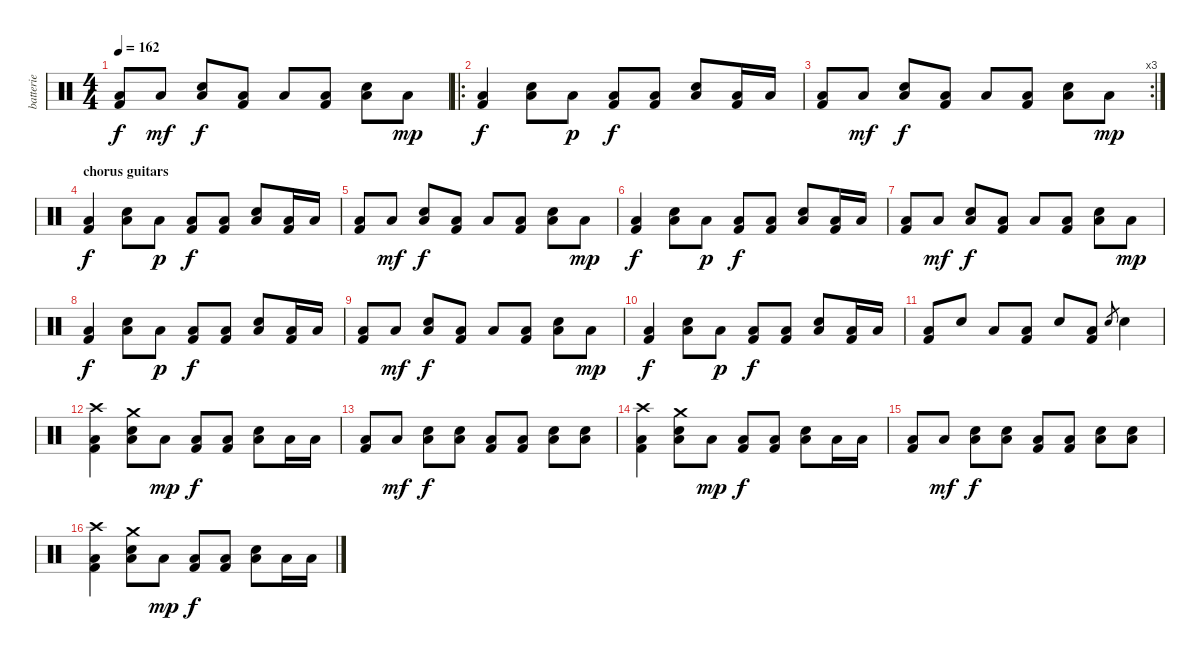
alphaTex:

\track ("batterie" "batterie") {instrument percussion}
\staff {score}
\articulation defaults
\ts (4 4)
\tempo 162
\clef neutral
\ks c
("Low Floor Tom (hit)" "Kick (hit) 2").8{dy f} "Low Floor Tom (hit)".8{dy mf} ("Low Floor Tom (hit)" "Electric Snare (hit)").8{dy f} ("Low Floor Tom (hit)" "Kick (hit) 2").8 "Low Floor Tom (hit)".8 ("Low Floor Tom (hit)" "Kick (hit) 2").8 ("Low Floor Tom (hit)" "Electric Snare (hit)").8 "Low Floor Tom (hit)".8{dy mp} |
\ro
("Low Floor Tom (hit)" "Kick (hit) 2").4{dy f} ("Low Floor Tom (hit)" "Electric Snare (hit)").8 "Low Floor Tom (hit)".8{dy p} ("Low Floor Tom (hit)" "Kick (hit) 2").8{dy f} ("Low Floor Tom (hit)" "Kick (hit) 2").8 ("Low Floor Tom (hit)" "Electric Snare (hit)").8 ("Low Floor Tom (hit)" "Kick (hit) 2").16 "Low Floor Tom (hit)".16 |
\rc 3
("Low Floor Tom (hit)" "Kick (hit) 2").8 "Low Floor Tom (hit)".8{dy mf} ("Low Floor Tom (hit)" "Electric Snare (hit)").8{dy f} ("Low Floor Tom (hit)" "Kick (hit) 2").8 "Low Floor Tom (hit)".8 ("Low Floor Tom (hit)" "Kick (hit) 2").8 ("Low Floor Tom (hit)" "Electric Snare (hit)").8 "Low Floor Tom (hit)".8{dy mp} |
\section ("" "chorus guitars")
("Low Floor Tom (hit)" "Kick (hit) 2").4{dy f} ("Low Floor Tom (hit)" "Electric Snare (hit)").8 "Low Floor Tom (hit)".8{dy p} ("Low Floor Tom (hit)" "Kick (hit) 2").8{dy f} ("Low Floor Tom (hit)" "Kick (hit) 2").8 ("Low Floor Tom (hit)" "Electric Snare (hit)").8 ("Low Floor Tom (hit)" "Kick (hit) 2").16 "Low Floor Tom (hit)".16 |
("Low Floor Tom (hit)" "Kick (hit) 2").8 "Low Floor Tom (hit)".8{dy mf} ("Low Floor Tom (hit)" "Electric Snare (hit)").8{dy f} ("Low Floor Tom (hit)" "Kick (hit) 2").8 "Low Floor Tom (hit)".8 ("Low Floor Tom (hit)" "Kick (hit) 2").8 ("Low Floor Tom (hit)" "Electric Snare (hit)").8 "Low Floor Tom (hit)".8{dy mp} |
("Low Floor Tom (hit)" "Kick (hit) 2").4{dy f} ("Low Floor Tom (hit)" "Electric Snare (hit)").8 "Low Floor Tom (hit)".8{dy p} ("Low Floor Tom (hit)" "Kick (hit) 2").8{dy f} ("Low Floor Tom (hit)" "Kick (hit) 2").8 ("Low Floor Tom (hit)" "Electric Snare (hit)").8 ("Low Floor Tom (hit)" "Kick (hit) 2").16 "Low Floor Tom (hit)".16 |
("Low Floor Tom (hit)" "Kick (hit) 2").8 "Low Floor Tom (hit)".8{dy mf} ("Low Floor Tom (hit)" "Electric Snare (hit)").8{dy f} ("Low Floor Tom (hit)" "Kick (hit) 2").8 "Low Floor Tom (hit)".8 ("Low Floor Tom (hit)" "Kick (hit) 2").8 ("Low Floor Tom (hit)" "Electric Snare (hit)").8 "Low Floor Tom (hit)".8{dy mp} |
("Low Floor Tom (hit)" "Kick (hit) 2").4{dy f} ("Low Floor Tom (hit)" "Electric Snare (hit)").8 "Low Floor Tom (hit)".8{dy p} ("Low Floor Tom (hit)" "Kick (hit) 2").8{dy f} ("Low Floor Tom (hit)" "Kick (hit) 2").8 ("Low Floor Tom (hit)" "Electric Snare (hit)").8 ("Low Floor Tom (hit)" "Kick (hit) 2").16 "Low Floor Tom (hit)".16 |
("Low Floor Tom (hit)" "Kick (hit) 2").8 "Low Floor Tom (hit)".8{dy mf} ("Low Floor Tom (hit)" "Electric Snare (hit)").8{dy f} ("Low Floor Tom (hit)" "Kick (hit) 2").8 "Low Floor Tom (hit)".8 ("Low Floor Tom (hit)" "Kick (hit) 2").8 ("Low Floor Tom (hit)" "Electric Snare (hit)").8 "Low Floor Tom (hit)".8{dy mp} |
("Low Floor Tom (hit)" "Kick (hit) 2").4{dy f} ("Low Floor Tom (hit)" "Electric Snare (hit)").8 "Low Floor Tom (hit)".8{dy p} ("Low Floor Tom (hit)" "Kick (hit) 2").8{dy f} ("Low Floor Tom (hit)" "Kick (hit) 2").8 ("Low Floor Tom (hit)" "Electric Snare (hit)").8 ("Low Floor Tom (hit)" "Kick (hit) 2").16 "Low Floor Tom (hit)".16 |
("Low Floor Tom (hit)" "Kick (hit) 2").8 "Electric Snare (hit)".8 "Low Floor Tom (hit)".8 ("Low Floor Tom (hit)" "Kick (hit) 2").8 "Electric Snare (hit)".8 ("Low Floor Tom (hit)" "Kick (hit) 2").8 "Electric Snare (hit)".8{gr} "Electric Snare (hit)".4 |
("Low Floor Tom (hit)" "Crash high (hit)" "Kick (hit) 2").4 ("Low Floor Tom (hit)" "Crash medium (hit)" "Electric Snare (hit)").8 "Low Floor Tom (hit)".8{dy mp} ("Low Floor Tom (hit)" "Kick (hit) 2").8{dy f} ("Low Floor Tom (hit)" "Kick (hit) 2").8 ("Low Floor Tom (hit)" "Electric Snare (hit)").8 "Low Floor Tom (hit)".16 "Low Floor Tom (hit)".16 |
("Low Floor Tom (hit)" "Kick (hit) 2").8 "Low Floor Tom (hit)".8{dy mf} ("Low Floor Tom (hit)" "Electric Snare (hit)").8{dy f} ("Low Floor Tom (hit)" "Electric Snare (hit)").8 ("Low Floor Tom (hit)" "Kick (hit) 2").8 ("Low Floor Tom (hit)" "Kick (hit) 2").8 ("Low Floor Tom (hit)" "Electric Snare (hit)").8 ("Low Floor Tom (hit)" "Electric Snare (hit)").8 |
("Low Floor Tom (hit)" "Crash high (hit)" "Kick (hit) 2").4 ("Low Floor Tom (hit)" "Crash medium (hit)" "Electric Snare (hit)").8 "Low Floor Tom (hit)".8{dy mp} ("Low Floor Tom (hit)" "Kick (hit) 2").8{dy f} ("Low Floor Tom (hit)" "Kick (hit) 2").8 ("Low Floor Tom (hit)" "Electric Snare (hit)").8 "Low Floor Tom (hit)".16 "Low Floor Tom (hit)".16 |
("Low Floor Tom (hit)" "Kick (hit) 2").8 "Low Floor Tom (hit)".8{dy mf} ("Low Floor Tom (hit)" "Electric Snare (hit)").8{dy f} ("Low Floor Tom (hit)" "Electric Snare (hit)").8 ("Low Floor Tom (hit)" "Kick (hit) 2").8 ("Low Floor Tom (hit)" "Kick (hit) 2").8 ("Low Floor Tom (hit)" "Electric Snare (hit)").8 ("Low Floor Tom (hit)" "Electric Snare (hit)").8 |
("Low Floor Tom (hit)" "Crash high (hit)" "Kick (hit) 2").4 ("Low Floor Tom (hit)" "Crash medium (hit)" "Electric Snare (hit)").8 "Low Floor Tom (hit)".8{dy mp} ("Low Floor Tom (hit)" "Kick (hit) 2").8{dy f} ("Low Floor Tom (hit)" "Kick (hit) 2").8 ("Low Floor Tom (hit)" "Electric Snare (hit)").8 "Low Floor Tom (hit)".16 "Low Floor Tom (hit)".16
